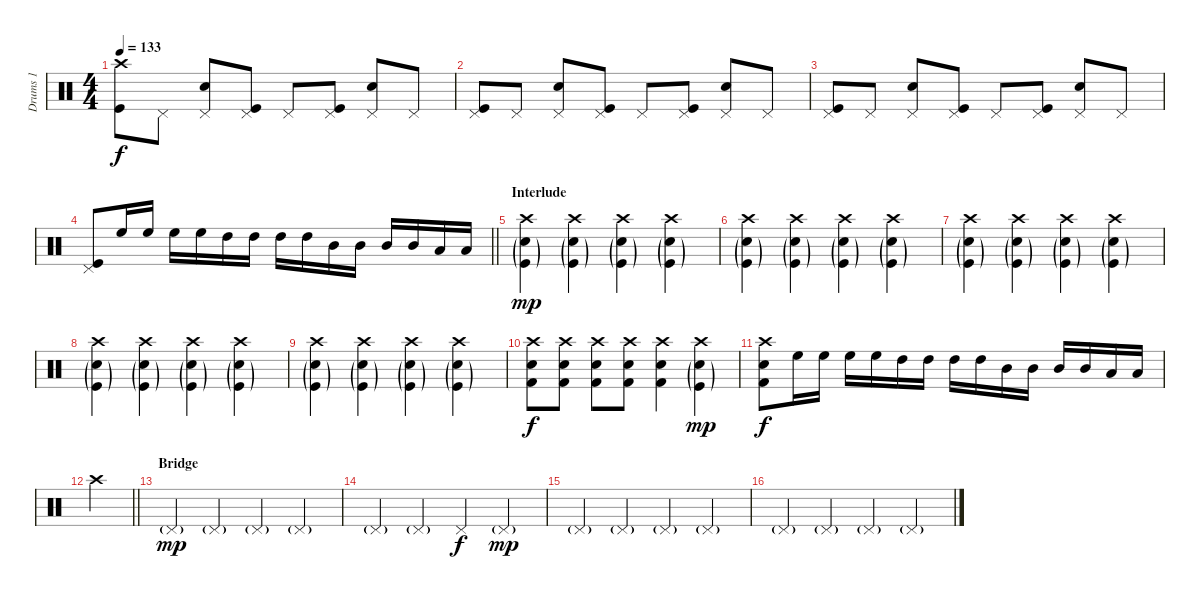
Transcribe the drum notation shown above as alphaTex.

\track ("Drums 1" "Drums 1") {instrument percussion}
\staff {score}
\articulation defaults
\ts (4 4)
\tempo 133
\clef neutral
\ks c
("Crash high (hit)" "Kick (hit)").8{dy f} "Pedal Hi-Hat (hit)".8 ("Pedal Hi-Hat (hit)" "Electric Snare (hit)").8 ("Pedal Hi-Hat (hit)" "Kick (hit)").8 "Pedal Hi-Hat (hit)".8 ("Pedal Hi-Hat (hit)" "Kick (hit)").8 ("Pedal Hi-Hat (hit)" "Electric Snare (hit)").8 "Pedal Hi-Hat (hit)".8 |
("Pedal Hi-Hat (hit)" "Kick (hit)").8 "Pedal Hi-Hat (hit)".8 ("Pedal Hi-Hat (hit)" "Electric Snare (hit)").8 ("Pedal Hi-Hat (hit)" "Kick (hit)").8 "Pedal Hi-Hat (hit)".8 ("Pedal Hi-Hat (hit)" "Kick (hit)").8 ("Pedal Hi-Hat (hit)" "Electric Snare (hit)").8 "Pedal Hi-Hat (hit)".8 |
("Pedal Hi-Hat (hit)" "Kick (hit)").8 "Pedal Hi-Hat (hit)".8 ("Pedal Hi-Hat (hit)" "Electric Snare (hit)").8 ("Pedal Hi-Hat (hit)" "Kick (hit)").8 "Pedal Hi-Hat (hit)".8 ("Pedal Hi-Hat (hit)" "Kick (hit)").8 ("Pedal Hi-Hat (hit)" "Electric Snare (hit)").8 "Pedal Hi-Hat (hit)".8 |
\barLineRight lightlight
("Pedal Hi-Hat (hit)" "Kick (hit)").8 "High Floor Tom (hit)".16 "High Floor Tom (hit)".16 "High Floor Tom (hit)".16 "High Floor Tom (hit)".16 "High Tom (hit)".16 "High Tom (hit)".16 "High Tom (hit)".16 "High Tom (hit)".16 "Mid Tom (hit)".16 "Mid Tom (hit)".16 "Mid Tom (hit)".16 "Mid Tom (hit)".16 "Low Tom (hit)".16 "Low Tom (hit)".16 |
\section ("" "Interlude")
("Crash high (hit)" "Kick (hit)"{g} "Electric Snare (hit)"{g}).4{dy mp} ("Crash high (hit)" "Kick (hit)"{g} "Electric Snare (hit)"{g}).4 ("Crash high (hit)" "Kick (hit)"{g} "Electric Snare (hit)"{g}).4 ("Crash high (hit)" "Kick (hit)"{g} "Electric Snare (hit)"{g}).4 |
("Crash high (hit)" "Kick (hit)"{g} "Electric Snare (hit)"{g}).4 ("Crash high (hit)" "Kick (hit)"{g} "Electric Snare (hit)"{g}).4 ("Crash high (hit)" "Kick (hit)"{g} "Electric Snare (hit)"{g}).4 ("Crash high (hit)" "Kick (hit)"{g} "Electric Snare (hit)"{g}).4 |
("Crash high (hit)" "Kick (hit)"{g} "Electric Snare (hit)"{g}).4 ("Crash high (hit)" "Kick (hit)"{g} "Electric Snare (hit)"{g}).4 ("Crash high (hit)" "Kick (hit)"{g} "Electric Snare (hit)"{g}).4 ("Crash high (hit)" "Kick (hit)"{g} "Electric Snare (hit)"{g}).4 |
("Crash high (hit)" "Kick (hit)"{g} "Electric Snare (hit)"{g}).4 ("Crash high (hit)" "Kick (hit)"{g} "Electric Snare (hit)"{g}).4 ("Crash high (hit)" "Kick (hit)"{g} "Electric Snare (hit)"{g}).4 ("Crash high (hit)" "Kick (hit)"{g} "Electric Snare (hit)"{g}).4 |
("Crash high (hit)" "Kick (hit)"{g} "Electric Snare (hit)"{g}).4 ("Crash high (hit)" "Kick (hit)"{g} "Electric Snare (hit)"{g}).4 ("Crash high (hit)" "Kick (hit)"{g} "Electric Snare (hit)"{g}).4 ("Crash high (hit)" "Kick (hit)"{g} "Electric Snare (hit)"{g}).4 |
("Crash high (hit)" "Electric Snare (hit)" "Kick (hit) 2").8{dy f} ("Crash high (hit)" "Electric Snare (hit)" "Kick (hit) 2").8 ("Crash high (hit)" "Electric Snare (hit)" "Kick (hit) 2").8 ("Crash high (hit)" "Electric Snare (hit)" "Kick (hit) 2").8 ("Crash high (hit)" "Electric Snare (hit)" "Kick (hit) 2").4 ("Crash high (hit)" "Kick (hit)"{g} "Electric Snare (hit)"{g}).4{dy mp} |
("Crash high (hit)" "Kick (hit) 2" "Electric Snare (hit)").8{dy f} "High Floor Tom (hit)".16 "High Floor Tom (hit)".16 "High Floor Tom (hit)".16 "High Floor Tom (hit)".16 "High Tom (hit)".16 "High Tom (hit)".16 "High Tom (hit)".16 "High Tom (hit)".16 "Mid Tom (hit)".16 "Mid Tom (hit)".16 "Mid Tom (hit)".16 "Mid Tom (hit)".16 "Low Tom (hit)".16 "Low Tom (hit)".16 |
\barLineRight lightlight "Crash high (hit)".4
|
\section ("" "Bridge")
"Pedal Hi-Hat (hit)"{g}.2{dy mp} "Pedal Hi-Hat (hit)"{g}.2 "Pedal Hi-Hat (hit)"{g}.2 "Pedal Hi-Hat (hit)"{g}.2 |
"Pedal Hi-Hat (hit)"{g}.2 "Pedal Hi-Hat (hit)"{g}.2 "Pedal Hi-Hat (hit)".2{dy f} "Pedal Hi-Hat (hit)"{g}.2{dy mp} |
"Pedal Hi-Hat (hit)"{g}.2 "Pedal Hi-Hat (hit)"{g}.2 "Pedal Hi-Hat (hit)"{g}.2 "Pedal Hi-Hat (hit)"{g}.2 |
"Pedal Hi-Hat (hit)"{g}.2 "Pedal Hi-Hat (hit)"{g}.2 "Pedal Hi-Hat (hit)"{g}.2 "Pedal Hi-Hat (hit)"{g}.2
